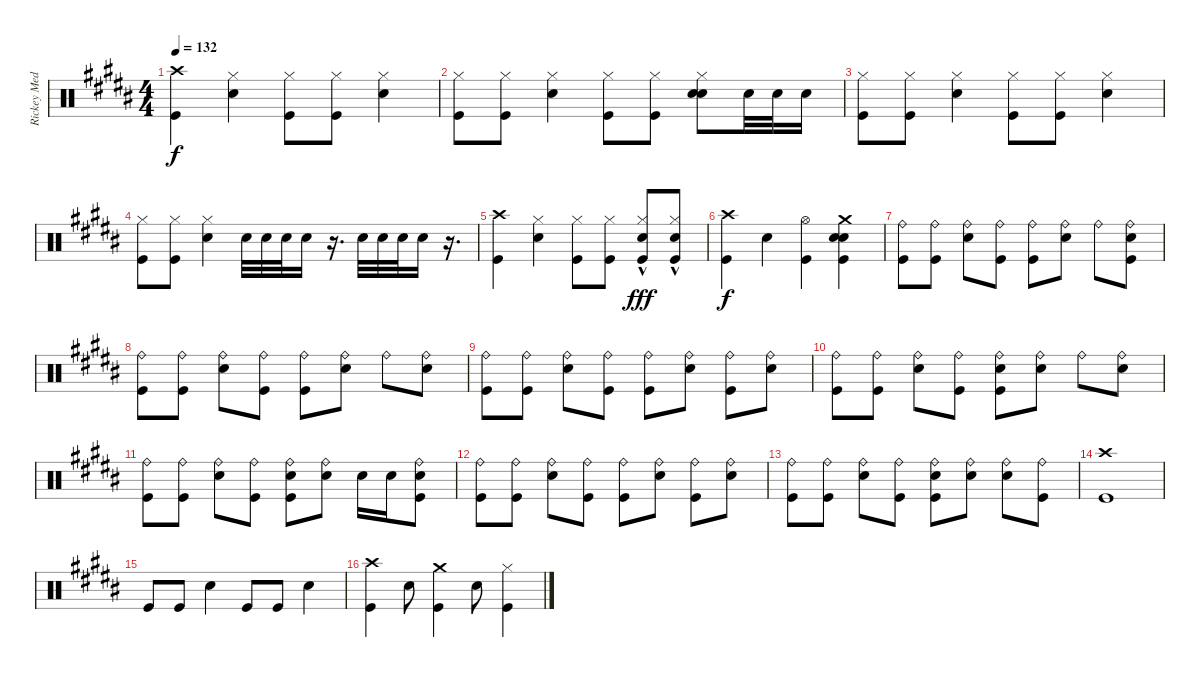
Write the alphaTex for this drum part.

\track ("Rickey Medlocke Drums" "Rickey Med") {instrument percussion}
\staff {score}
\articulation defaults
\ts (4 4)
\tempo 132
\clef neutral
\ks b
("Crash high (hit)" "Kick (hit)").4{dy f} ("Hi-Hat (closed)" "Snare (hit) 2").4 ("Hi-Hat (closed)" "Kick (hit)").8 ("Hi-Hat (closed)" "Kick (hit)").8 ("Hi-Hat (closed)" "Snare (hit) 2").4 |
("Hi-Hat (closed)" "Kick (hit)").8 ("Hi-Hat (closed)" "Kick (hit)").8 ("Hi-Hat (closed)" "Snare (hit) 2").4 ("Hi-Hat (closed)" "Kick (hit)").8 ("Hi-Hat (closed)" "Kick (hit)").8 ("Hi-Hat (closed)" "Snare (hit) 2" "Hand Clap (hit)").8 "Snare (hit) 2".32 "Snare (hit) 2".32 "Snare (hit) 2".16 |
("Hi-Hat (closed)" "Kick (hit)").8 ("Hi-Hat (closed)" "Kick (hit)").8 ("Hi-Hat (closed)" "Snare (hit) 2").4 ("Hi-Hat (closed)" "Kick (hit)").8 ("Hi-Hat (closed)" "Kick (hit)").8 ("Hi-Hat (closed)" "Snare (hit) 2").4 |
("Hi-Hat (closed)" "Kick (hit)").8 ("Hi-Hat (closed)" "Kick (hit)").8 ("Hi-Hat (closed)" "Snare (hit) 2").4 "Snare (hit) 2".32 "Snare (hit) 2".32 "Snare (hit) 2".32 "Snare (hit) 2".16 r.16{d} "Snare (hit) 2".32 "Snare (hit) 2".32 "Snare (hit) 2".32 "Snare (hit) 2".16 r.16{d} |
("Crash high (hit)" "Kick (hit)").4 ("Hi-Hat (closed)" "Snare (hit) 2").4 ("Hi-Hat (closed)" "Kick (hit)").8 ("Hi-Hat (closed)" "Kick (hit)").8 ("Hi-Hat (closed)"{hac} "Snare (hit) 2" "Kick (hit)").8{dy fff} ("Hi-Hat (closed)"{hac} "Snare (hit) 2" "Kick (hit)").8 |
("Crash high (hit)" "Kick (hit)").4{dy f} "Snare (hit) 2".4 ("Hi-Hat (open)" "Kick (hit)").4 ("Crash medium (hit)" "Snare (hit) 2" "Hand Clap (hit)" "Kick (hit)").4 |
("Ride (bell)" "Kick (hit)").8 ("Ride (bell)" "Kick (hit)").8 ("Ride (bell)" "Snare (hit) 2").8 ("Ride (bell)" "Kick (hit)").8 ("Ride (bell)" "Kick (hit)").8 ("Ride (bell)" "Snare (hit) 2").8 "Ride (bell)".8 ("Ride (bell)" "Snare (hit) 2" "Kick (hit)").8 |
("Ride (bell)" "Kick (hit)").8 ("Ride (bell)" "Kick (hit)").8 ("Ride (bell)" "Snare (hit) 2").8 ("Ride (bell)" "Kick (hit)").8 ("Ride (bell)" "Kick (hit)").8 ("Ride (bell)" "Snare (hit) 2").8 "Ride (bell)".8 ("Ride (bell)" "Snare (hit) 2").8 |
("Ride (bell)" "Kick (hit)").8 ("Ride (bell)" "Kick (hit)").8 ("Ride (bell)" "Snare (hit) 2").8 ("Ride (bell)" "Kick (hit)").8 ("Ride (bell)" "Kick (hit)").8 ("Ride (bell)" "Snare (hit) 2").8 ("Ride (bell)" "Kick (hit)").8 ("Ride (bell)" "Snare (hit) 2").8 |
("Ride (bell)" "Kick (hit)").8 ("Ride (bell)" "Kick (hit)").8 ("Ride (bell)" "Snare (hit) 2").8 ("Ride (bell)" "Kick (hit)").8 ("Ride (bell)" "Snare (hit) 2" "Kick (hit)").8 ("Ride (bell)" "Snare (hit) 2").8 "Ride (bell)".8 ("Ride (bell)" "Snare (hit) 2").8 |
("Ride (bell)" "Kick (hit)").8 ("Ride (bell)" "Kick (hit)").8 ("Ride (bell)" "Snare (hit) 2").8 ("Ride (bell)" "Kick (hit)").8 ("Ride (bell)" "Snare (hit) 2" "Kick (hit)").8 ("Ride (bell)" "Snare (hit) 2").8 "Snare (hit) 2".16 "Snare (hit) 2".16 ("Ride (bell)" "Snare (hit) 2" "Kick (hit)").8 |
("Ride (bell)" "Kick (hit)").8 ("Ride (bell)" "Kick (hit)").8 ("Ride (bell)" "Snare (hit) 2").8 ("Ride (bell)" "Kick (hit)").8 ("Ride (bell)" "Kick (hit)").8 ("Ride (bell)" "Snare (hit) 2").8 ("Ride (bell)" "Kick (hit)").8 ("Ride (bell)" "Snare (hit) 2").8 |
("Ride (bell)" "Kick (hit)").8 ("Ride (bell)" "Kick (hit)").8 ("Ride (bell)" "Snare (hit) 2").8 ("Ride (bell)" "Kick (hit)").8 ("Ride (bell)" "Snare (hit) 2" "Kick (hit)").8 ("Ride (bell)" "Snare (hit) 2").8 ("Ride (bell)" "Snare (hit) 2").8 ("Ride (bell)" "Kick (hit)").8 |
("Crash high (hit)" "Kick (hit)").1 |
"Kick (hit)".8 "Kick (hit)".8 "Snare (hit) 2".4 "Kick (hit)".8 "Kick (hit)".8 "Snare (hit) 2".4 |
("Crash high (hit)" "Kick (hit)").4 "Snare (hit) 2".8 ("Crash medium (hit)" "Kick (hit)").4 "Snare (hit) 2".8 ("Hi-Hat (closed)" "Kick (hit)").4
